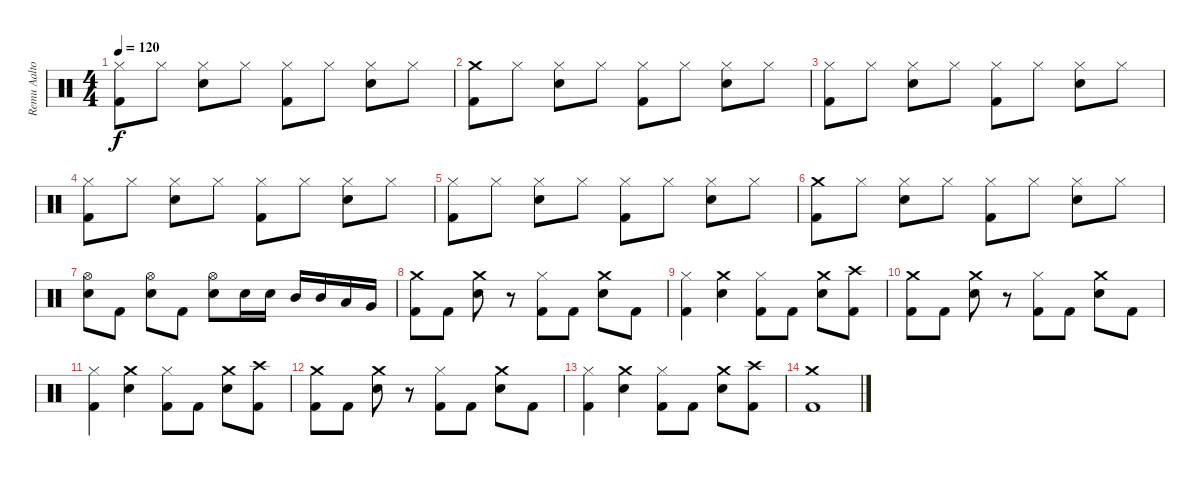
\track ("Remu Aaltonen" "Remu Aalto") {instrument percussion}
\staff {score}
\articulation defaults
\ts (4 4)
\tempo 120
\clef neutral
\ks c
("Hi-Hat (closed)" "Kick (hit) 2").8{dy f} "Hi-Hat (closed)".8 ("Hi-Hat (closed)" "Snare (hit) 2").8 "Hi-Hat (closed)".8 ("Hi-Hat (closed)" "Kick (hit) 2").8 "Hi-Hat (closed)".8 ("Hi-Hat (closed)" "Snare (hit) 2").8 "Hi-Hat (closed)".8 |
("Crash medium (hit)" "Kick (hit) 2").8 "Hi-Hat (closed)".8 ("Hi-Hat (closed)" "Snare (hit) 2").8 "Hi-Hat (closed)".8 ("Hi-Hat (closed)" "Kick (hit) 2").8 "Hi-Hat (closed)".8 ("Hi-Hat (closed)" "Snare (hit) 2").8 "Hi-Hat (closed)".8 |
("Hi-Hat (closed)" "Kick (hit) 2").8 "Hi-Hat (closed)".8 ("Hi-Hat (closed)" "Snare (hit) 2").8 "Hi-Hat (closed)".8 ("Hi-Hat (closed)" "Kick (hit) 2").8 "Hi-Hat (closed)".8 ("Hi-Hat (closed)" "Snare (hit) 2").8 "Hi-Hat (closed)".8 |
("Hi-Hat (closed)" "Kick (hit) 2").8 "Hi-Hat (closed)".8 ("Hi-Hat (closed)" "Snare (hit) 2").8 "Hi-Hat (closed)".8 ("Hi-Hat (closed)" "Kick (hit) 2").8 "Hi-Hat (closed)".8 ("Hi-Hat (closed)" "Snare (hit) 2").8 "Hi-Hat (closed)".8 |
("Hi-Hat (closed)" "Kick (hit) 2").8 "Hi-Hat (closed)".8 ("Hi-Hat (closed)" "Snare (hit) 2").8 "Hi-Hat (closed)".8 ("Hi-Hat (closed)" "Kick (hit) 2").8 "Hi-Hat (closed)".8 ("Hi-Hat (closed)" "Snare (hit) 2").8 "Hi-Hat (closed)".8 |
("Crash medium (hit)" "Kick (hit) 2").8 "Hi-Hat (closed)".8 ("Hi-Hat (closed)" "Snare (hit) 2").8 "Hi-Hat (closed)".8 ("Hi-Hat (closed)" "Kick (hit) 2").8 "Hi-Hat (closed)".8 ("Hi-Hat (closed)" "Snare (hit) 2").8 "Hi-Hat (closed)".8 |
("Hi-Hat (open)" "Snare (hit) 2").8 "Kick (hit) 2".8 ("Hi-Hat (open)" "Snare (hit) 2").8 "Kick (hit) 2".8 ("Hi-Hat (open)" "Snare (hit) 2").8 "Snare (hit) 2".16 "Snare (hit) 2".16 "Mid Tom (hit)".16 "Mid Tom (hit)".16 "Low Tom (hit)".16 "Very Low Tom (hit)".16 |
("Crash medium (hit)" "Kick (hit) 2").8 "Kick (hit) 2".8 ("Crash medium (hit)" "Snare (hit) 2").8 r.8 ("Hi-Hat (closed)" "Kick (hit) 2").8 "Kick (hit) 2".8 ("Crash medium (hit)" "Snare (hit) 2").8 "Kick (hit) 2".8 |
("Hi-Hat (closed)" "Kick (hit) 2").4 ("Crash medium (hit)" "Snare (hit) 2").4 ("Hi-Hat (closed)" "Kick (hit) 2").8 "Kick (hit) 2".8 ("Crash medium (hit)" "Snare (hit) 2").8 ("Crash high (hit)" "Kick (hit) 2").8 |
("Crash medium (hit)" "Kick (hit) 2").8 "Kick (hit) 2".8 ("Crash medium (hit)" "Snare (hit) 2").8 r.8 ("Hi-Hat (closed)" "Kick (hit) 2").8 "Kick (hit) 2".8 ("Crash medium (hit)" "Snare (hit) 2").8 "Kick (hit) 2".8 |
("Hi-Hat (closed)" "Kick (hit) 2").4 ("Crash medium (hit)" "Snare (hit) 2").4 ("Hi-Hat (closed)" "Kick (hit) 2").8 "Kick (hit) 2".8 ("Crash medium (hit)" "Snare (hit) 2").8 ("Crash high (hit)" "Kick (hit) 2").8 |
("Crash medium (hit)" "Kick (hit) 2").8 "Kick (hit) 2".8 ("Crash medium (hit)" "Snare (hit) 2").8 r.8 ("Hi-Hat (closed)" "Kick (hit) 2").8 "Kick (hit) 2".8 ("Crash medium (hit)" "Snare (hit) 2").8 "Kick (hit) 2".8 |
("Hi-Hat (closed)" "Kick (hit) 2").4 ("Crash medium (hit)" "Snare (hit) 2").4 ("Hi-Hat (closed)" "Kick (hit) 2").8 "Kick (hit) 2".8 ("Crash medium (hit)" "Snare (hit) 2").8 ("Crash high (hit)" "Kick (hit) 2").8 |
("Crash medium (hit)" "Kick (hit) 2").1
